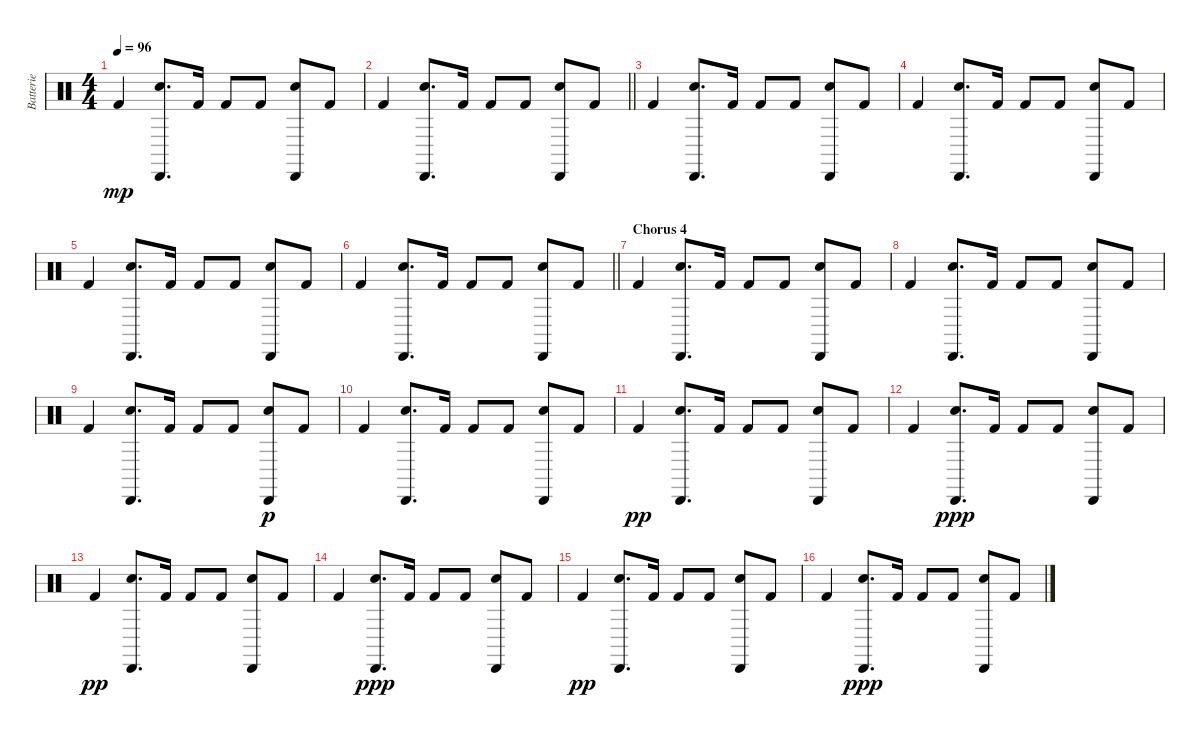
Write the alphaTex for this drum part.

\track ("Batterie" "Batterie") {instrument percussion}
\staff {score}
\articulation defaults
\ts (4 4)
\tempo 96
\clef neutral
\ks c "Kick (hit) 2".4{dy mp}
("Electric Snare (hit)" "Cabasa (hit)").8{d} "Kick (hit) 2".16 "Kick (hit) 2".8 "Kick (hit) 2".8 ("Cabasa (hit)" "Electric Snare (hit)").8 "Kick (hit) 2".8 |
\barLineRight lightlight "Kick (hit) 2".4
("Electric Snare (hit)" "Cabasa (hit)").8{d} "Kick (hit) 2".16 "Kick (hit) 2".8 "Kick (hit) 2".8 ("Cabasa (hit)" "Electric Snare (hit)").8 "Kick (hit) 2".8 |
"Kick (hit) 2".4 ("Electric Snare (hit)" "Cabasa (hit)").8{d} "Kick (hit) 2".16 "Kick (hit) 2".8 "Kick (hit) 2".8 ("Cabasa (hit)" "Electric Snare (hit)").8 "Kick (hit) 2".8 |
"Kick (hit) 2".4 ("Electric Snare (hit)" "Cabasa (hit)").8{d} "Kick (hit) 2".16 "Kick (hit) 2".8 "Kick (hit) 2".8 ("Cabasa (hit)" "Electric Snare (hit)").8 "Kick (hit) 2".8 |
"Kick (hit) 2".4 ("Electric Snare (hit)" "Cabasa (hit)").8{d} "Kick (hit) 2".16 "Kick (hit) 2".8 "Kick (hit) 2".8 ("Cabasa (hit)" "Electric Snare (hit)").8 "Kick (hit) 2".8 |
\barLineRight lightlight "Kick (hit) 2".4
("Electric Snare (hit)" "Cabasa (hit)").8{d} "Kick (hit) 2".16 "Kick (hit) 2".8 "Kick (hit) 2".8 ("Cabasa (hit)" "Electric Snare (hit)").8 "Kick (hit) 2".8 |
\section ("" "Chorus 4")
"Kick (hit) 2".4 ("Electric Snare (hit)" "Cabasa (hit)").8{d} "Kick (hit) 2".16 "Kick (hit) 2".8 "Kick (hit) 2".8 ("Cabasa (hit)" "Electric Snare (hit)").8 "Kick (hit) 2".8 |
"Kick (hit) 2".4 ("Electric Snare (hit)" "Cabasa (hit)").8{d} "Kick (hit) 2".16 "Kick (hit) 2".8 "Kick (hit) 2".8 ("Cabasa (hit)" "Electric Snare (hit)").8 "Kick (hit) 2".8 |
"Kick (hit) 2".4 ("Electric Snare (hit)" "Cabasa (hit)").8{d} "Kick (hit) 2".16 "Kick (hit) 2".8 "Kick (hit) 2".8 ("Cabasa (hit)" "Electric Snare (hit)").8{dy p} "Kick (hit) 2".8 |
"Kick (hit) 2".4 ("Electric Snare (hit)" "Cabasa (hit)").8{d} "Kick (hit) 2".16 "Kick (hit) 2".8 "Kick (hit) 2".8 ("Cabasa (hit)" "Electric Snare (hit)").8 "Kick (hit) 2".8 |
"Kick (hit) 2".4{dy pp} ("Electric Snare (hit)" "Cabasa (hit)").8{d} "Kick (hit) 2".16 "Kick (hit) 2".8 "Kick (hit) 2".8 ("Cabasa (hit)" "Electric Snare (hit)").8 "Kick (hit) 2".8 |
"Kick (hit) 2".4 ("Electric Snare (hit)" "Cabasa (hit)").8{d dy ppp} "Kick (hit) 2".16 "Kick (hit) 2".8 "Kick (hit) 2".8 ("Cabasa (hit)" "Electric Snare (hit)").8 "Kick (hit) 2".8 |
"Kick (hit) 2".4{dy pp} ("Electric Snare (hit)" "Cabasa (hit)").8{d} "Kick (hit) 2".16 "Kick (hit) 2".8 "Kick (hit) 2".8 ("Cabasa (hit)" "Electric Snare (hit)").8 "Kick (hit) 2".8 |
"Kick (hit) 2".4 ("Electric Snare (hit)" "Cabasa (hit)").8{d dy ppp} "Kick (hit) 2".16 "Kick (hit) 2".8 "Kick (hit) 2".8 ("Cabasa (hit)" "Electric Snare (hit)").8 "Kick (hit) 2".8 |
"Kick (hit) 2".4{dy pp} ("Electric Snare (hit)" "Cabasa (hit)").8{d} "Kick (hit) 2".16 "Kick (hit) 2".8 "Kick (hit) 2".8 ("Cabasa (hit)" "Electric Snare (hit)").8 "Kick (hit) 2".8 |
"Kick (hit) 2".4 ("Electric Snare (hit)" "Cabasa (hit)").8{d dy ppp} "Kick (hit) 2".16 "Kick (hit) 2".8 "Kick (hit) 2".8 ("Cabasa (hit)" "Electric Snare (hit)").8 "Kick (hit) 2".8
